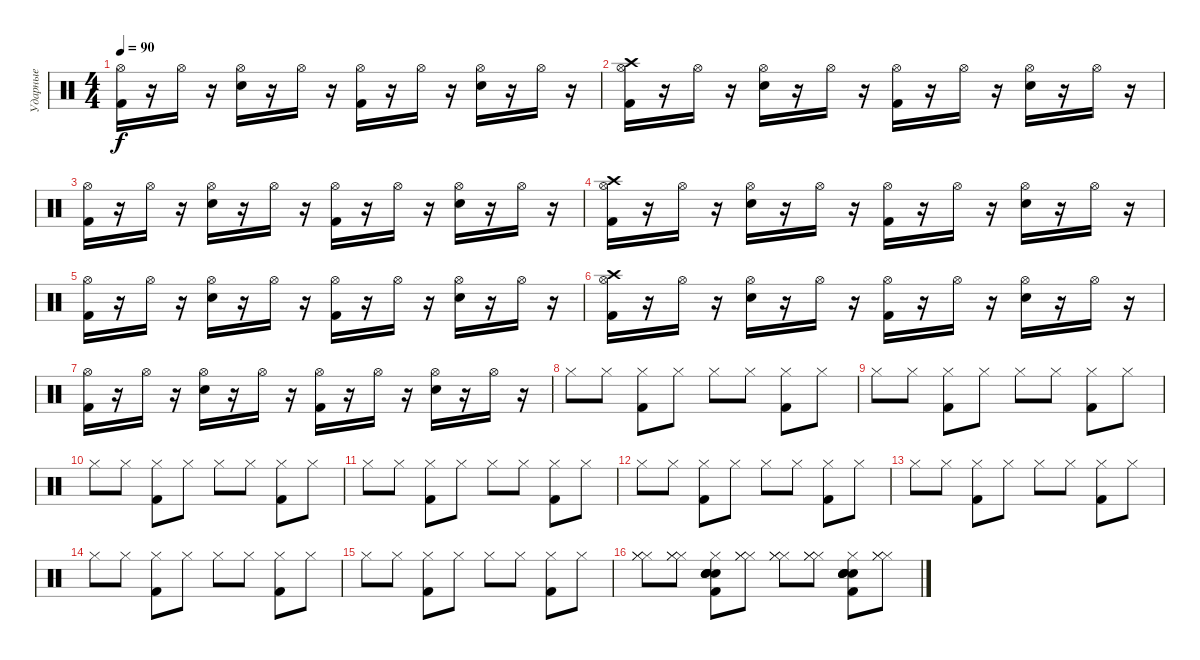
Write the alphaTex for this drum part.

\track ("Ударные" "Ударные") {instrument percussion}
\staff {score}
\articulation defaults
\ts (4 4)
\tempo 90
\clef neutral
\ks c
("Kick (hit) 2" "Hi-Hat (open)").16{dy f} r.16 "Hi-Hat (open)".16 r.16 ("Snare (hit) 2" "Hi-Hat (open)").16 r.16 "Hi-Hat (open)".16 r.16 ("Kick (hit) 2" "Hi-Hat (open)").16 r.16 "Hi-Hat (open)".16 r.16 ("Snare (hit) 2" "Hi-Hat (open)").16 r.16 "Hi-Hat (open)".16 r.16 |
("Kick (hit) 2" "Crash high (hit)" "Hi-Hat (open)").16 r.16 "Hi-Hat (open)".16 r.16 ("Snare (hit) 2" "Hi-Hat (open)").16 r.16 "Hi-Hat (open)".16 r.16 ("Kick (hit) 2" "Hi-Hat (open)").16 r.16 "Hi-Hat (open)".16 r.16 ("Snare (hit) 2" "Hi-Hat (open)").16 r.16 "Hi-Hat (open)".16 r.16 |
("Kick (hit) 2" "Hi-Hat (open)").16 r.16 "Hi-Hat (open)".16 r.16 ("Snare (hit) 2" "Hi-Hat (open)").16 r.16 "Hi-Hat (open)".16 r.16 ("Kick (hit) 2" "Hi-Hat (open)").16 r.16 "Hi-Hat (open)".16 r.16 ("Snare (hit) 2" "Hi-Hat (open)").16 r.16 "Hi-Hat (open)".16 r.16 |
("Kick (hit) 2" "Crash high (hit)" "Hi-Hat (open)").16 r.16 "Hi-Hat (open)".16 r.16 ("Snare (hit) 2" "Hi-Hat (open)").16 r.16 "Hi-Hat (open)".16 r.16 ("Kick (hit) 2" "Hi-Hat (open)").16 r.16 "Hi-Hat (open)".16 r.16 ("Snare (hit) 2" "Hi-Hat (open)").16 r.16 "Hi-Hat (open)".16 r.16 |
("Kick (hit) 2" "Hi-Hat (open)").16 r.16 "Hi-Hat (open)".16 r.16 ("Snare (hit) 2" "Hi-Hat (open)").16 r.16 "Hi-Hat (open)".16 r.16 ("Kick (hit) 2" "Hi-Hat (open)").16 r.16 "Hi-Hat (open)".16 r.16 ("Snare (hit) 2" "Hi-Hat (open)").16 r.16 "Hi-Hat (open)".16 r.16 |
("Kick (hit) 2" "Crash high (hit)" "Hi-Hat (open)").16 r.16 "Hi-Hat (open)".16 r.16 ("Snare (hit) 2" "Hi-Hat (open)").16 r.16 "Hi-Hat (open)".16 r.16 ("Kick (hit) 2" "Hi-Hat (open)").16 r.16 "Hi-Hat (open)".16 r.16 ("Snare (hit) 2" "Hi-Hat (open)").16 r.16 "Hi-Hat (open)".16 r.16 |
("Kick (hit) 2" "Hi-Hat (open)").16 r.16 "Hi-Hat (open)".16 r.16 ("Snare (hit) 2" "Hi-Hat (open)").16 r.16 "Hi-Hat (open)".16 r.16 ("Kick (hit) 2" "Hi-Hat (open)").16 r.16 "Hi-Hat (open)".16 r.16 ("Snare (hit) 2" "Hi-Hat (open)").16 r.16 "Hi-Hat (open)".16 r.16 |
"Hi-Hat (closed)".8 "Hi-Hat (closed)".8 ("Hi-Hat (closed)" "Kick (hit) 2").8 "Hi-Hat (closed)".8 "Hi-Hat (closed)".8 "Hi-Hat (closed)".8 ("Hi-Hat (closed)" "Kick (hit) 2").8 "Hi-Hat (closed)".8 |
"Hi-Hat (closed)".8 "Hi-Hat (closed)".8 ("Hi-Hat (closed)" "Kick (hit) 2").8 "Hi-Hat (closed)".8 "Hi-Hat (closed)".8 "Hi-Hat (closed)".8 ("Hi-Hat (closed)" "Kick (hit) 2").8 "Hi-Hat (closed)".8 |
"Hi-Hat (closed)".8 "Hi-Hat (closed)".8 ("Hi-Hat (closed)" "Kick (hit) 2").8 "Hi-Hat (closed)".8 "Hi-Hat (closed)".8 "Hi-Hat (closed)".8 ("Hi-Hat (closed)" "Kick (hit) 2").8 "Hi-Hat (closed)".8 |
"Hi-Hat (closed)".8 "Hi-Hat (closed)".8 ("Hi-Hat (closed)" "Kick (hit) 2").8 "Hi-Hat (closed)".8 "Hi-Hat (closed)".8 "Hi-Hat (closed)".8 ("Hi-Hat (closed)" "Kick (hit) 2").8 "Hi-Hat (closed)".8 |
"Hi-Hat (closed)".8 "Hi-Hat (closed)".8 ("Hi-Hat (closed)" "Kick (hit) 2").8 "Hi-Hat (closed)".8 "Hi-Hat (closed)".8 "Hi-Hat (closed)".8 ("Hi-Hat (closed)" "Kick (hit) 2").8 "Hi-Hat (closed)".8 |
"Hi-Hat (closed)".8 "Hi-Hat (closed)".8 ("Hi-Hat (closed)" "Kick (hit) 2").8 "Hi-Hat (closed)".8 "Hi-Hat (closed)".8 "Hi-Hat (closed)".8 ("Hi-Hat (closed)" "Kick (hit) 2").8 "Hi-Hat (closed)".8 |
"Hi-Hat (closed)".8 "Hi-Hat (closed)".8 ("Hi-Hat (closed)" "Kick (hit) 2").8 "Hi-Hat (closed)".8 "Hi-Hat (closed)".8 "Hi-Hat (closed)".8 ("Hi-Hat (closed)" "Kick (hit) 2").8 "Hi-Hat (closed)".8 |
"Hi-Hat (closed)".8 "Hi-Hat (closed)".8 ("Hi-Hat (closed)" "Kick (hit) 2").8 "Hi-Hat (closed)".8 "Hi-Hat (closed)".8 "Hi-Hat (closed)".8 ("Hi-Hat (closed)" "Kick (hit) 2").8 "Hi-Hat (closed)".8 |
("Hi-Hat (closed)" "Hi-Hat (closed)" "Hi-Hat (closed)").8 ("Hi-Hat (closed)" "Hi-Hat (closed)" "Hi-Hat (closed)").8 ("Electric Snare (hit)" "Electric Snare (hit)" "Electric Snare (hit)" "Electric Snare (hit)" "Hi-Hat (closed)" "Kick (hit) 2").8 ("Hi-Hat (closed)" "Hi-Hat (closed)" "Hi-Hat (closed)").8 ("Hi-Hat (closed)" "Hi-Hat (closed)" "Hi-Hat (closed)").8 ("Hi-Hat (closed)" "Hi-Hat (closed)" "Hi-Hat (closed)").8 ("Electric Snare (hit)" "Electric Snare (hit)" "Electric Snare (hit)" "Electric Snare (hit)" "Hi-Hat (closed)" "Kick (hit) 2").8 ("Hi-Hat (closed)" "Hi-Hat (closed)" "Hi-Hat (closed)").8
